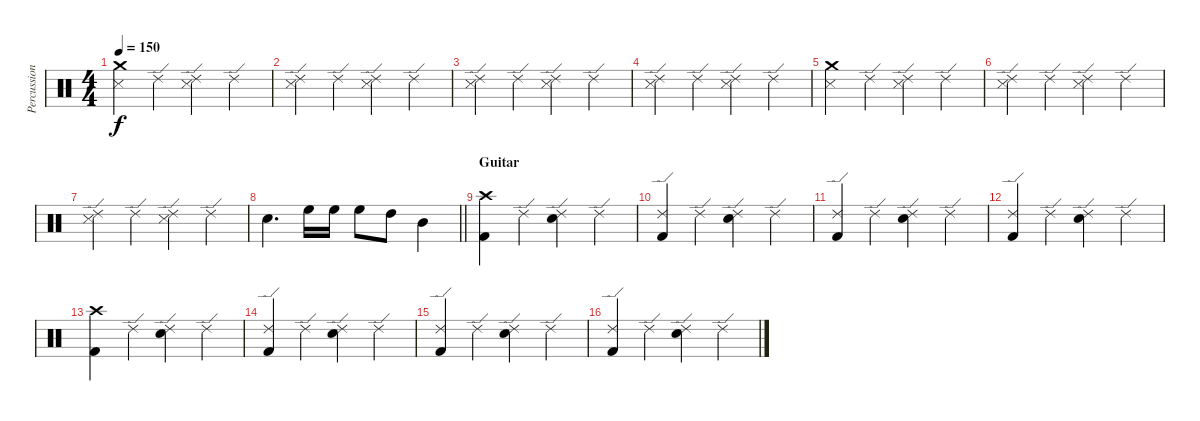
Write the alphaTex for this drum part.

\track ("Percussion" "Percussion") {instrument percussion}
\staff {score}
\articulation defaults
\ts (4 4)
\tempo 150
\clef neutral
\ks c
("Crash medium (hit)" "Snare (side stick) 3").4{dy f} "Ride (edge) 2".4 ("Ride (edge) 2" "Snare (side stick) 3").4 "Ride (edge) 2".4 |
("Ride (edge) 2" "Snare (side stick) 3").4 "Ride (edge) 2".4 ("Ride (edge) 2" "Snare (side stick) 3").4 "Ride (edge) 2".4 |
("Ride (edge) 2" "Snare (side stick) 3").4 "Ride (edge) 2".4 ("Ride (edge) 2" "Snare (side stick) 3").4 "Ride (edge) 2".4 |
("Ride (edge) 2" "Snare (side stick) 3").4 "Ride (edge) 2".4 ("Ride (edge) 2" "Snare (side stick) 3").4 "Ride (edge) 2".4 |
("Crash medium (hit)" "Snare (side stick) 3").4 "Ride (edge) 2".4 ("Ride (edge) 2" "Snare (side stick) 3").4 "Ride (edge) 2".4 |
("Ride (edge) 2" "Snare (side stick) 3").4 "Ride (edge) 2".4 ("Ride (edge) 2" "Snare (side stick) 3").4 "Ride (edge) 2".4 |
("Ride (edge) 2" "Snare (side stick) 3").4 "Ride (edge) 2".4 ("Ride (edge) 2" "Snare (side stick) 3").4 "Ride (edge) 2".4 |
\barLineRight lightlight "Electric Snare (hit)".4{d} "High Floor Tom (hit)".16 "High Floor Tom (hit)".16 "High Floor Tom (hit)".8 "High Tom (hit)".8 "Mid Tom (hit)".4
|
\section ("" "Guitar")
("Crash high (hit)" "Kick (hit) 2").4 "Ride (edge) 2".4 ("Ride (edge) 2" "Electric Snare (hit)").4 "Ride (edge) 2".4 |
("Ride (edge) 2" "Kick (hit) 2").4 "Ride (edge) 2".4 ("Ride (edge) 2" "Electric Snare (hit)").4 "Ride (edge) 2".4 |
("Ride (edge) 2" "Kick (hit) 2").4 "Ride (edge) 2".4 ("Ride (edge) 2" "Electric Snare (hit)").4 "Ride (edge) 2".4 |
("Ride (edge) 2" "Kick (hit) 2").4 "Ride (edge) 2".4 ("Ride (edge) 2" "Electric Snare (hit)").4 "Ride (edge) 2".4 |
("Crash high (hit)" "Kick (hit) 2").4 "Ride (edge) 2".4 ("Ride (edge) 2" "Electric Snare (hit)").4 "Ride (edge) 2".4 |
("Ride (edge) 2" "Kick (hit) 2").4 "Ride (edge) 2".4 ("Ride (edge) 2" "Electric Snare (hit)").4 "Ride (edge) 2".4 |
("Ride (edge) 2" "Kick (hit) 2").4 "Ride (edge) 2".4 ("Ride (edge) 2" "Electric Snare (hit)").4 "Ride (edge) 2".4 |
("Ride (edge) 2" "Kick (hit) 2").4 "Ride (edge) 2".4 ("Ride (edge) 2" "Electric Snare (hit)").4 "Ride (edge) 2".4
